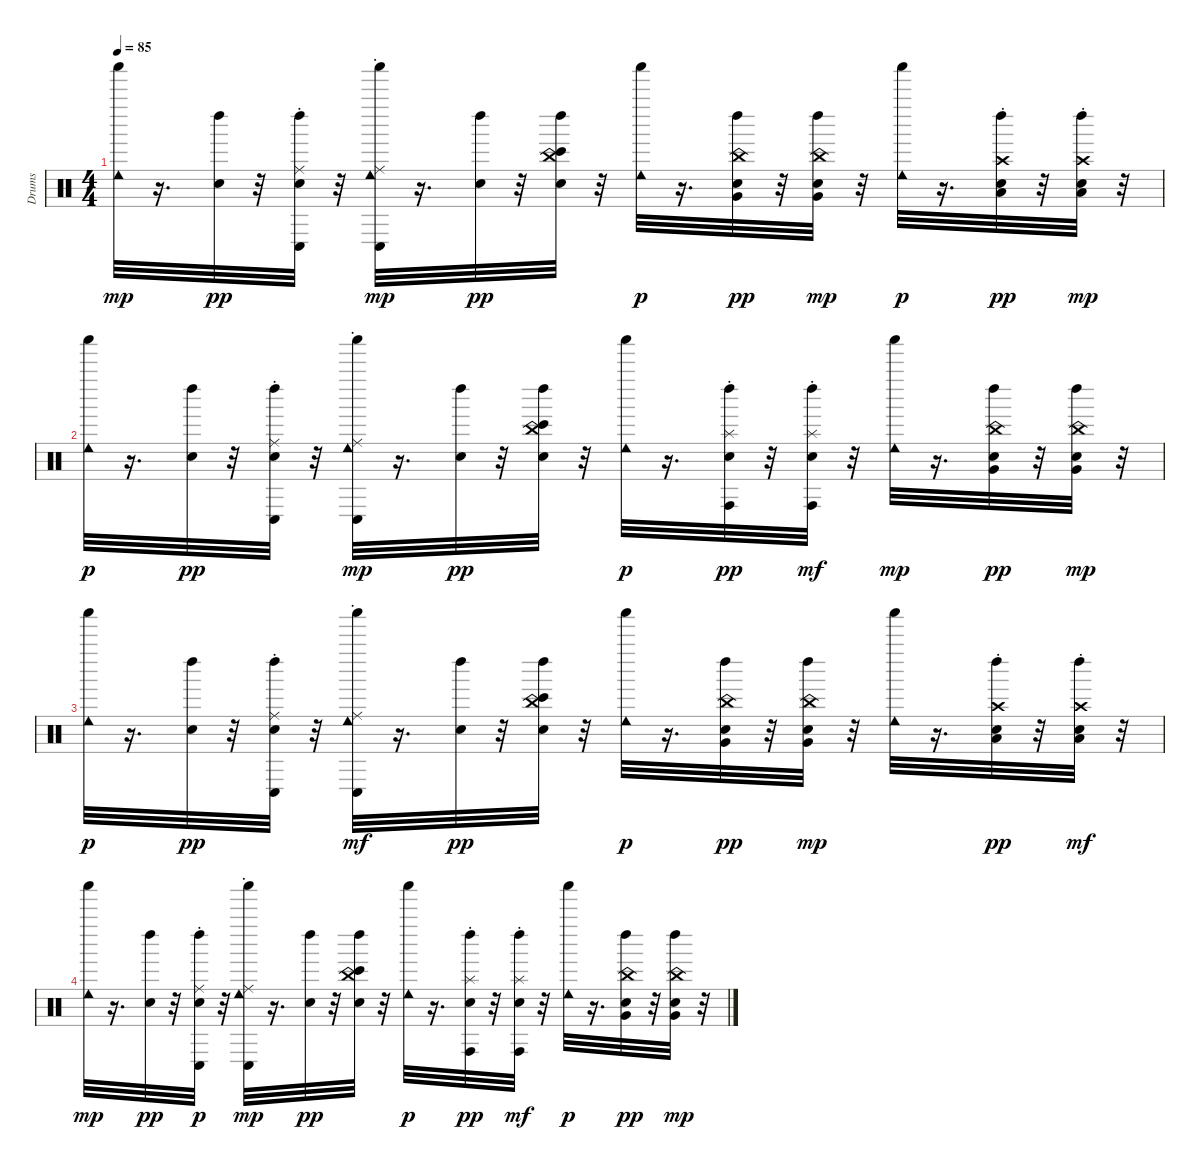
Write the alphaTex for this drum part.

\track ("Drums" "Drums") {instrument percussion}
\staff {score}
\articulation defaults
\ts (4 4)
\tempo 85
\clef neutral
\ks c
("Cowbell low (hit)" "Shaker (hit)").32{dy mp} r.16{d} ("Left Maraca (hit)" "Snare (hit)").32{dy pp} r.32 ("Conga low (hit)" "Ride (choke)" "Left Maraca (hit)" "Snare (hit)").32 r.32 ("Shaker (hit)" "Cowbell low (hit)" "Conga low (hit)" "Ride (choke)").32{dy mp} r.16{d} ("Left Maraca (hit)" "Snare (hit)").32{dy pp} r.32 ("Bongo High (hit)" "China (choke)" "Left Maraca (hit)" "Snare (hit)").32 r.32 ("Shaker (hit)" "Cowbell low (hit)").32{dy p} r.16{d} ("Very Low Tom (hit)" "China (choke)" "Snare (hit)" "Left Maraca (hit)").32{dy pp} r.32 ("Left Maraca (hit)" "Snare (hit)" "China (choke)" "Very Low Tom (hit)").32{dy mp} r.32 ("Shaker (hit)" "Cowbell low (hit)").32{dy p} r.16{d} ("Crash high (choke)" "Low Floor Tom (hit)" "Left Maraca (hit)" "Snare (hit)").32{dy pp} r.32 ("Left Maraca (hit)" "Snare (hit)" "Crash high (choke)" "Low Floor Tom (hit)").32{dy mp} r.32 |
("Shaker (hit)" "Cowbell low (hit)").32{dy p} r.16{d} ("Left Maraca (hit)" "Snare (hit)").32{dy pp} r.32 ("Conga low (hit)" "Ride (choke)" "Left Maraca (hit)" "Snare (hit)").32 r.32 ("Shaker (hit)" "Cowbell low (hit)" "Conga low (hit)" "Ride (choke)").32{dy mp} r.16{d} ("Left Maraca (hit)" "Snare (hit)").32{dy pp} r.32 ("China (choke)" "Bongo High (hit)" "Left Maraca (hit)" "Snare (hit)").32 r.32 ("Shaker (hit)" "Cowbell low (hit)").32{dy p} r.16{d} ("Conga high (hit)" "Splash (choke)" "Left Maraca (hit)" "Snare (hit)").32{dy pp} r.32 ("Snare (hit)" "Left Maraca (hit)" "Splash (choke)" "Conga high (hit)").32{dy mf} r.32 ("Cowbell low (hit)" "Shaker (hit)").32{dy mp} r.16{d} ("China (choke)" "Very Low Tom (hit)" "Left Maraca (hit)" "Snare (hit)").32{dy pp} r.32 ("Left Maraca (hit)" "China (choke)" "Snare (hit)" "Very Low Tom (hit)").32{dy mp} r.32 |
("Shaker (hit)" "Cowbell low (hit)").32{dy p} r.16{d} ("Left Maraca (hit)" "Snare (hit)").32{dy pp} r.32 ("Ride (choke)" "Conga low (hit)" "Left Maraca (hit)" "Snare (hit)").32 r.32 ("Shaker (hit)" "Cowbell low (hit)" "Ride (choke)" "Conga low (hit)").32{dy mf} r.16{d} ("Left Maraca (hit)" "Snare (hit)").32{dy pp} r.32 ("Bongo High (hit)" "Left Maraca (hit)" "China (choke)" "Snare (hit)").32 r.32 ("Shaker (hit)" "Cowbell low (hit)").32{dy p} r.16{d} ("China (choke)" "Very Low Tom (hit)" "Left Maraca (hit)" "Snare (hit)").32{dy pp} r.32 ("Left Maraca (hit)" "China (choke)" "Snare (hit)" "Very Low Tom (hit)").32{dy mp} r.32 ("Cowbell low (hit)" "Shaker (hit)").32 r.16{d} ("Crash high (choke)" "Low Floor Tom (hit)" "Left Maraca (hit)" "Snare (hit)").32{dy pp} r.32 ("Snare (hit)" "Left Maraca (hit)" "Low Floor Tom (hit)" "Crash high (choke)").32{dy mf} r.32 |
("Cowbell low (hit)" "Shaker (hit)").32{dy mp} r.16{d} ("Left Maraca (hit)" "Snare (hit)").32{dy pp} r.32 ("Ride (choke)" "Conga low (hit)" "Snare (hit)" "Left Maraca (hit)").32{dy p} r.32 ("Cowbell low (hit)" "Shaker (hit)" "Conga low (hit)" "Ride (choke)").32{dy mp} r.16{d} ("Left Maraca (hit)" "Snare (hit)").32{dy pp} r.32 ("Bongo High (hit)" "China (choke)" "Left Maraca (hit)" "Snare (hit)").32 r.32 ("Shaker (hit)" "Cowbell low (hit)").32{dy p} r.16{d} ("Conga high (hit)" "Splash (choke)" "Left Maraca (hit)" "Snare (hit)").32{dy pp} r.32 ("Snare (hit)" "Left Maraca (hit)" "Splash (choke)" "Conga high (hit)").32{dy mf} r.32 ("Shaker (hit)" "Cowbell low (hit)").32{dy p} r.16{d} ("China (choke)" "Very Low Tom (hit)" "Snare (hit)" "Left Maraca (hit)").32{dy pp} r.32 ("Snare (hit)" "Left Maraca (hit)" "China (choke)" "Very Low Tom (hit)").32{dy mp} r.32
